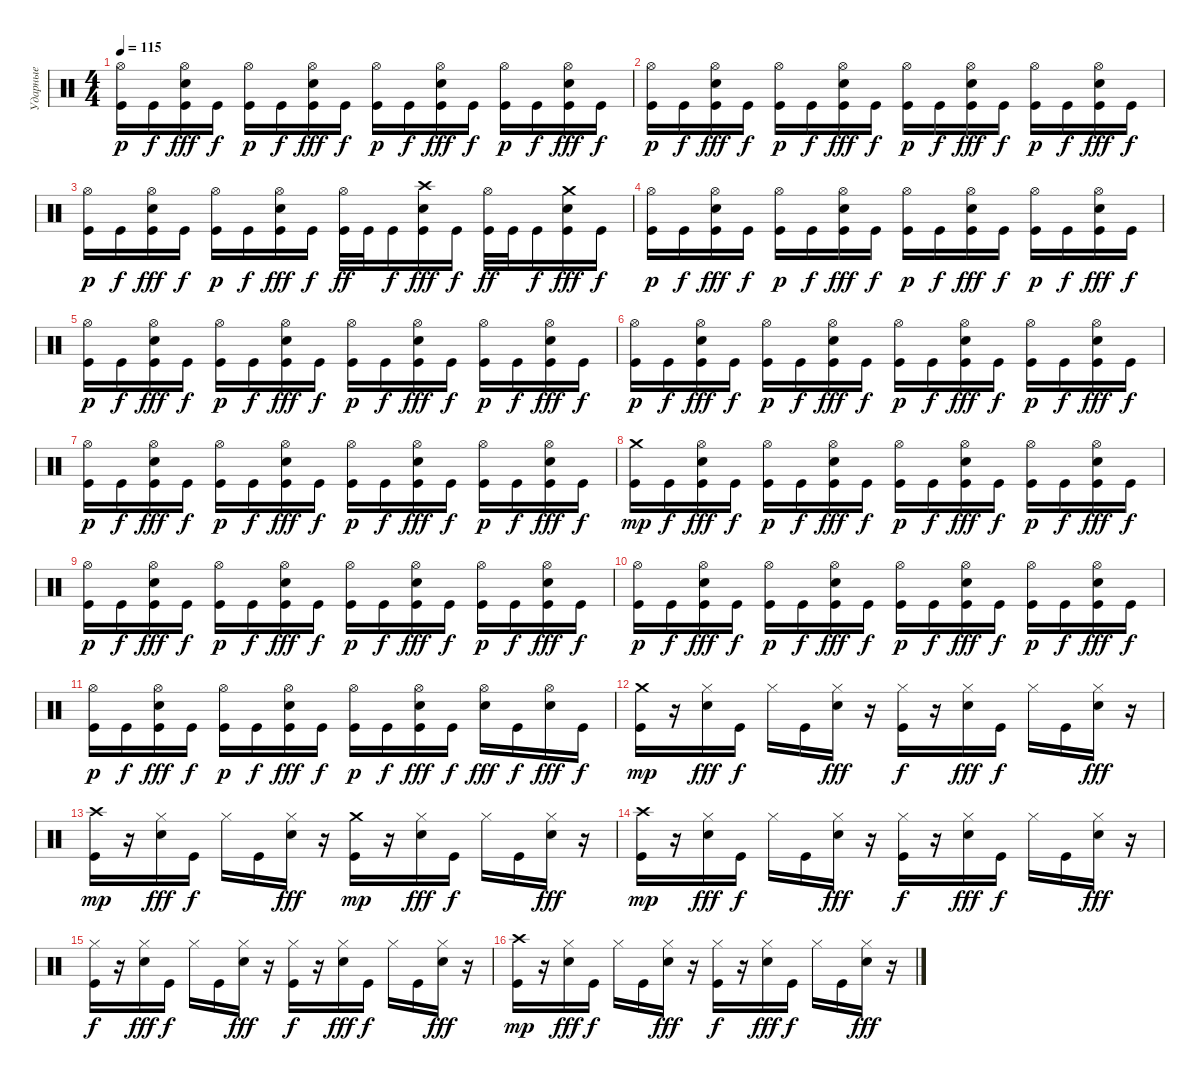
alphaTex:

\track ("Ударные" "Ударные") {instrument percussion}
\staff {score}
\articulation defaults
\ts (4 4)
\tempo 115
\clef neutral
\ks c
("Hi-Hat (open)" "Kick (hit)").16{dy p} "Kick (hit)".16{dy f} ("Hi-Hat (open)" "Electric Snare (hit)" "Kick (hit)").16{dy fff} "Kick (hit)".16{dy f} ("Hi-Hat (open)" "Kick (hit)").16{dy p} "Kick (hit)".16{dy f} ("Hi-Hat (open)" "Electric Snare (hit)" "Kick (hit)").16{dy fff} "Kick (hit)".16{dy f} ("Hi-Hat (open)" "Kick (hit)").16{dy p} "Kick (hit)".16{dy f} ("Hi-Hat (open)" "Electric Snare (hit)" "Kick (hit)").16{dy fff} "Kick (hit)".16{dy f} ("Hi-Hat (open)" "Kick (hit)").16{dy p} "Kick (hit)".16{dy f} ("Hi-Hat (open)" "Electric Snare (hit)" "Kick (hit)").16{dy fff} "Kick (hit)".16{dy f} |
("Hi-Hat (open)" "Kick (hit)").16{dy p} "Kick (hit)".16{dy f} ("Hi-Hat (open)" "Electric Snare (hit)" "Kick (hit)").16{dy fff} "Kick (hit)".16{dy f} ("Hi-Hat (open)" "Kick (hit)").16{dy p} "Kick (hit)".16{dy f} ("Hi-Hat (open)" "Electric Snare (hit)" "Kick (hit)").16{dy fff} "Kick (hit)".16{dy f} ("Hi-Hat (open)" "Kick (hit)").16{dy p} "Kick (hit)".16{dy f} ("Hi-Hat (open)" "Electric Snare (hit)" "Kick (hit)").16{dy fff} "Kick (hit)".16{dy f} ("Hi-Hat (open)" "Kick (hit)").16{dy p} "Kick (hit)".16{dy f} ("Hi-Hat (open)" "Electric Snare (hit)" "Kick (hit)").16{dy fff} "Kick (hit)".16{dy f} |
("Hi-Hat (open)" "Kick (hit)").16{dy p} "Kick (hit)".16{dy f} ("Hi-Hat (open)" "Electric Snare (hit)" "Kick (hit)").16{dy fff} "Kick (hit)".16{dy f} ("Hi-Hat (open)" "Kick (hit)").16{dy p} "Kick (hit)".16{dy f} ("Hi-Hat (open)" "Electric Snare (hit)" "Kick (hit)").16{dy fff} "Kick (hit)".16{dy f} ("Hi-Hat (open)" "Kick (hit)").32{dy ff} "Kick (hit)".32 "Kick (hit)".16{dy f} ("Crash high (hit)" "Electric Snare (hit)" "Kick (hit)").16{dy fff} "Kick (hit)".16{dy f} ("Hi-Hat (open)" "Kick (hit)").32{dy ff} "Kick (hit)".32 "Kick (hit)".16{dy f} ("Crash medium (hit)" "Electric Snare (hit)" "Kick (hit)").16{dy fff} "Kick (hit)".16{dy f} |
\section ("" "")
("Hi-Hat (open)" "Kick (hit)").16{dy p} "Kick (hit)".16{dy f} ("Hi-Hat (open)" "Electric Snare (hit)" "Kick (hit)").16{dy fff} "Kick (hit)".16{dy f} ("Hi-Hat (open)" "Kick (hit)").16{dy p} "Kick (hit)".16{dy f} ("Hi-Hat (open)" "Electric Snare (hit)" "Kick (hit)").16{dy fff} "Kick (hit)".16{dy f} ("Hi-Hat (open)" "Kick (hit)").16{dy p} "Kick (hit)".16{dy f} ("Hi-Hat (open)" "Electric Snare (hit)" "Kick (hit)").16{dy fff} "Kick (hit)".16{dy f} ("Hi-Hat (open)" "Kick (hit)").16{dy p} "Kick (hit)".16{dy f} ("Hi-Hat (open)" "Electric Snare (hit)" "Kick (hit)").16{dy fff} "Kick (hit)".16{dy f} |
("Hi-Hat (open)" "Kick (hit)").16{dy p} "Kick (hit)".16{dy f} ("Hi-Hat (open)" "Electric Snare (hit)" "Kick (hit)").16{dy fff} "Kick (hit)".16{dy f} ("Hi-Hat (open)" "Kick (hit)").16{dy p} "Kick (hit)".16{dy f} ("Hi-Hat (open)" "Electric Snare (hit)" "Kick (hit)").16{dy fff} "Kick (hit)".16{dy f} ("Hi-Hat (open)" "Kick (hit)").16{dy p} "Kick (hit)".16{dy f} ("Hi-Hat (open)" "Electric Snare (hit)" "Kick (hit)").16{dy fff} "Kick (hit)".16{dy f} ("Hi-Hat (open)" "Kick (hit)").16{dy p} "Kick (hit)".16{dy f} ("Hi-Hat (open)" "Electric Snare (hit)" "Kick (hit)").16{dy fff} "Kick (hit)".16{dy f} |
("Hi-Hat (open)" "Kick (hit)").16{dy p} "Kick (hit)".16{dy f} ("Hi-Hat (open)" "Electric Snare (hit)" "Kick (hit)").16{dy fff} "Kick (hit)".16{dy f} ("Hi-Hat (open)" "Kick (hit)").16{dy p} "Kick (hit)".16{dy f} ("Hi-Hat (open)" "Electric Snare (hit)" "Kick (hit)").16{dy fff} "Kick (hit)".16{dy f} ("Hi-Hat (open)" "Kick (hit)").16{dy p} "Kick (hit)".16{dy f} ("Hi-Hat (open)" "Electric Snare (hit)" "Kick (hit)").16{dy fff} "Kick (hit)".16{dy f} ("Hi-Hat (open)" "Kick (hit)").16{dy p} "Kick (hit)".16{dy f} ("Hi-Hat (open)" "Electric Snare (hit)" "Kick (hit)").16{dy fff} "Kick (hit)".16{dy f} |
("Hi-Hat (open)" "Kick (hit)").16{dy p} "Kick (hit)".16{dy f} ("Hi-Hat (open)" "Electric Snare (hit)" "Kick (hit)").16{dy fff} "Kick (hit)".16{dy f} ("Hi-Hat (open)" "Kick (hit)").16{dy p} "Kick (hit)".16{dy f} ("Hi-Hat (open)" "Electric Snare (hit)" "Kick (hit)").16{dy fff} "Kick (hit)".16{dy f} ("Hi-Hat (open)" "Kick (hit)").16{dy p} "Kick (hit)".16{dy f} ("Hi-Hat (open)" "Electric Snare (hit)" "Kick (hit)").16{dy fff} "Kick (hit)".16{dy f} ("Hi-Hat (open)" "Kick (hit)").16{dy p} "Kick (hit)".16{dy f} ("Hi-Hat (open)" "Electric Snare (hit)" "Kick (hit)").16{dy fff} "Kick (hit)".16{dy f} |
("Crash medium (hit)" "Kick (hit)").16{dy mp} "Kick (hit)".16{dy f} ("Hi-Hat (open)" "Electric Snare (hit)" "Kick (hit)").16{dy fff} "Kick (hit)".16{dy f} ("Hi-Hat (open)" "Kick (hit)").16{dy p} "Kick (hit)".16{dy f} ("Hi-Hat (open)" "Electric Snare (hit)" "Kick (hit)").16{dy fff} "Kick (hit)".16{dy f} ("Hi-Hat (open)" "Kick (hit)").16{dy p} "Kick (hit)".16{dy f} ("Hi-Hat (open)" "Electric Snare (hit)" "Kick (hit)").16{dy fff} "Kick (hit)".16{dy f} ("Hi-Hat (open)" "Kick (hit)").16{dy p} "Kick (hit)".16{dy f} ("Hi-Hat (open)" "Electric Snare (hit)" "Kick (hit)").16{dy fff} "Kick (hit)".16{dy f} |
("Hi-Hat (open)" "Kick (hit)").16{dy p} "Kick (hit)".16{dy f} ("Hi-Hat (open)" "Electric Snare (hit)" "Kick (hit)").16{dy fff} "Kick (hit)".16{dy f} ("Hi-Hat (open)" "Kick (hit)").16{dy p} "Kick (hit)".16{dy f} ("Hi-Hat (open)" "Electric Snare (hit)" "Kick (hit)").16{dy fff} "Kick (hit)".16{dy f} ("Hi-Hat (open)" "Kick (hit)").16{dy p} "Kick (hit)".16{dy f} ("Hi-Hat (open)" "Electric Snare (hit)" "Kick (hit)").16{dy fff} "Kick (hit)".16{dy f} ("Hi-Hat (open)" "Kick (hit)").16{dy p} "Kick (hit)".16{dy f} ("Hi-Hat (open)" "Electric Snare (hit)" "Kick (hit)").16{dy fff} "Kick (hit)".16{dy f} |
("Hi-Hat (open)" "Kick (hit)").16{dy p} "Kick (hit)".16{dy f} ("Hi-Hat (open)" "Electric Snare (hit)" "Kick (hit)").16{dy fff} "Kick (hit)".16{dy f} ("Hi-Hat (open)" "Kick (hit)").16{dy p} "Kick (hit)".16{dy f} ("Hi-Hat (open)" "Electric Snare (hit)" "Kick (hit)").16{dy fff} "Kick (hit)".16{dy f} ("Hi-Hat (open)" "Kick (hit)").16{dy p} "Kick (hit)".16{dy f} ("Hi-Hat (open)" "Electric Snare (hit)" "Kick (hit)").16{dy fff} "Kick (hit)".16{dy f} ("Hi-Hat (open)" "Kick (hit)").16{dy p} "Kick (hit)".16{dy f} ("Hi-Hat (open)" "Electric Snare (hit)" "Kick (hit)").16{dy fff} "Kick (hit)".16{dy f} |
("Hi-Hat (open)" "Kick (hit)").16{dy p} "Kick (hit)".16{dy f} ("Hi-Hat (open)" "Electric Snare (hit)" "Kick (hit)").16{dy fff} "Kick (hit)".16{dy f} ("Hi-Hat (open)" "Kick (hit)").16{dy p} "Kick (hit)".16{dy f} ("Hi-Hat (open)" "Electric Snare (hit)" "Kick (hit)").16{dy fff} "Kick (hit)".16{dy f} ("Hi-Hat (open)" "Kick (hit)").16{dy p} "Kick (hit)".16{dy f} ("Hi-Hat (open)" "Electric Snare (hit)" "Kick (hit)").16{dy fff} "Kick (hit)".16{dy f} ("Hi-Hat (open)" "Electric Snare (hit)").16{dy fff} "Kick (hit)".16{dy f} ("Hi-Hat (open)" "Electric Snare (hit)").16{dy fff} "Kick (hit)".16{dy f} |
\section ("" "")
("Crash medium (hit)" "Kick (hit)").16{dy mp} r.16 ("Hi-Hat (closed)" "Electric Snare (hit)").16{dy fff} "Kick (hit)".16{dy f} "Hi-Hat (closed)".16 "Kick (hit)".16 ("Hi-Hat (closed)" "Electric Snare (hit)").16{dy fff} r.16 ("Hi-Hat (closed)" "Kick (hit)").16{dy f} r.16 ("Hi-Hat (closed)" "Electric Snare (hit)").16{dy fff} "Kick (hit)".16{dy f} "Hi-Hat (closed)".16 "Kick (hit)".16 ("Hi-Hat (closed)" "Electric Snare (hit)").16{dy fff} r.16 |
("Crash high (hit)" "Kick (hit)").16{dy mp} r.16 ("Hi-Hat (closed)" "Electric Snare (hit)").16{dy fff} "Kick (hit)".16{dy f} "Hi-Hat (closed)".16 "Kick (hit)".16 ("Hi-Hat (closed)" "Electric Snare (hit)").16{dy fff} r.16 ("Crash medium (hit)" "Kick (hit)").16{dy mp} r.16 ("Hi-Hat (closed)" "Electric Snare (hit)").16{dy fff} "Kick (hit)".16{dy f} "Hi-Hat (closed)".16 "Kick (hit)".16 ("Hi-Hat (closed)" "Electric Snare (hit)").16{dy fff} r.16 |
("Crash high (hit)" "Kick (hit)").16{dy mp} r.16 ("Hi-Hat (closed)" "Electric Snare (hit)").16{dy fff} "Kick (hit)".16{dy f} "Hi-Hat (closed)".16 "Kick (hit)".16 ("Hi-Hat (closed)" "Electric Snare (hit)").16{dy fff} r.16 ("Hi-Hat (closed)" "Kick (hit)").16{dy f} r.16 ("Hi-Hat (closed)" "Electric Snare (hit)").16{dy fff} "Kick (hit)".16{dy f} "Hi-Hat (closed)".16 "Kick (hit)".16 ("Hi-Hat (closed)" "Electric Snare (hit)").16{dy fff} r.16 |
("Hi-Hat (closed)" "Kick (hit)").16{dy f} r.16 ("Hi-Hat (closed)" "Electric Snare (hit)").16{dy fff} "Kick (hit)".16{dy f} "Hi-Hat (closed)".16 "Kick (hit)".16 ("Hi-Hat (closed)" "Electric Snare (hit)").16{dy fff} r.16 ("Hi-Hat (closed)" "Kick (hit)").16{dy f} r.16 ("Hi-Hat (closed)" "Electric Snare (hit)").16{dy fff} "Kick (hit)".16{dy f} "Hi-Hat (closed)".16 "Kick (hit)".16 ("Hi-Hat (closed)" "Electric Snare (hit)").16{dy fff} r.16 |
("Crash high (hit)" "Kick (hit)").16{dy mp} r.16 ("Hi-Hat (closed)" "Electric Snare (hit)").16{dy fff} "Kick (hit)".16{dy f} "Hi-Hat (closed)".16 "Kick (hit)".16 ("Hi-Hat (closed)" "Electric Snare (hit)").16{dy fff} r.16 ("Hi-Hat (closed)" "Kick (hit)").16{dy f} r.16 ("Hi-Hat (closed)" "Electric Snare (hit)").16{dy fff} "Kick (hit)".16{dy f} "Hi-Hat (closed)".16 "Kick (hit)".16 ("Hi-Hat (closed)" "Electric Snare (hit)").16{dy fff} r.16
